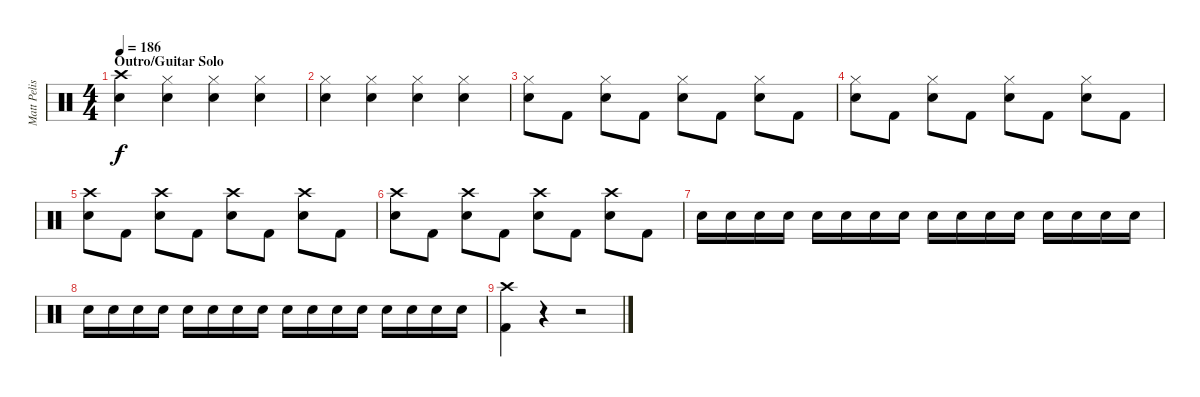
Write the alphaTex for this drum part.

\track ("Matt Pelissier" "Matt Pelis") {instrument percussion}
\staff {score}
\articulation defaults
\ts (4 4)
\section ("" "Outro/Guitar Solo")
\tempo 186
\clef neutral
\ks c
("Crash high (hit)" "Snare (hit) 2").4{dy f} ("Snare (hit) 2" "Hi-Hat (closed)").4 ("Snare (hit) 2" "Hi-Hat (closed)").4 ("Snare (hit) 2" "Hi-Hat (closed)").4 |
("Snare (hit) 2" "Hi-Hat (closed)").4 ("Snare (hit) 2" "Hi-Hat (closed)").4 ("Snare (hit) 2" "Hi-Hat (closed)").4 ("Snare (hit) 2" "Hi-Hat (closed)").4 |
("Snare (hit) 2" "Hi-Hat (closed)").8 "Kick (hit) 2".8 ("Snare (hit) 2" "Hi-Hat (closed)").8 "Kick (hit) 2".8 ("Snare (hit) 2" "Hi-Hat (closed)").8 "Kick (hit) 2".8 ("Snare (hit) 2" "Hi-Hat (closed)").8 "Kick (hit) 2".8 |
("Snare (hit) 2" "Hi-Hat (closed)").8 "Kick (hit) 2".8 ("Snare (hit) 2" "Hi-Hat (closed)").8 "Kick (hit) 2".8 ("Snare (hit) 2" "Hi-Hat (closed)").8 "Kick (hit) 2".8 ("Snare (hit) 2" "Hi-Hat (closed)").8 "Kick (hit) 2".8 |
("Crash high (hit)" "Snare (hit) 2").8 "Kick (hit) 2".8 ("Crash high (hit)" "Snare (hit) 2").8 "Kick (hit) 2".8 ("Crash high (hit)" "Snare (hit) 2").8 "Kick (hit) 2".8 ("Crash high (hit)" "Snare (hit) 2").8 "Kick (hit) 2".8 |
("Crash high (hit)" "Snare (hit) 2").8 "Kick (hit) 2".8 ("Crash high (hit)" "Snare (hit) 2").8 "Kick (hit) 2".8 ("Crash high (hit)" "Snare (hit) 2").8 "Kick (hit) 2".8 ("Crash high (hit)" "Snare (hit) 2").8 "Kick (hit) 2".8 |
"Snare (hit) 2".16 "Snare (hit) 2".16 "Snare (hit) 2".16 "Snare (hit) 2".16 "Snare (hit) 2".16 "Snare (hit) 2".16 "Snare (hit) 2".16 "Snare (hit) 2".16 "Snare (hit) 2".16 "Snare (hit) 2".16 "Snare (hit) 2".16 "Snare (hit) 2".16 "Snare (hit) 2".16 "Snare (hit) 2".16 "Snare (hit) 2".16 "Snare (hit) 2".16 |
"Snare (hit) 2".16 "Snare (hit) 2".16 "Snare (hit) 2".16 "Snare (hit) 2".16 "Snare (hit) 2".16 "Snare (hit) 2".16 "Snare (hit) 2".16 "Snare (hit) 2".16 "Snare (hit) 2".16 "Snare (hit) 2".16 "Snare (hit) 2".16 "Snare (hit) 2".16 "Snare (hit) 2".16 "Snare (hit) 2".16 "Snare (hit) 2".16 "Snare (hit) 2".16 |
("Crash high (hit)" "Kick (hit) 2").4 r.4 r.2
